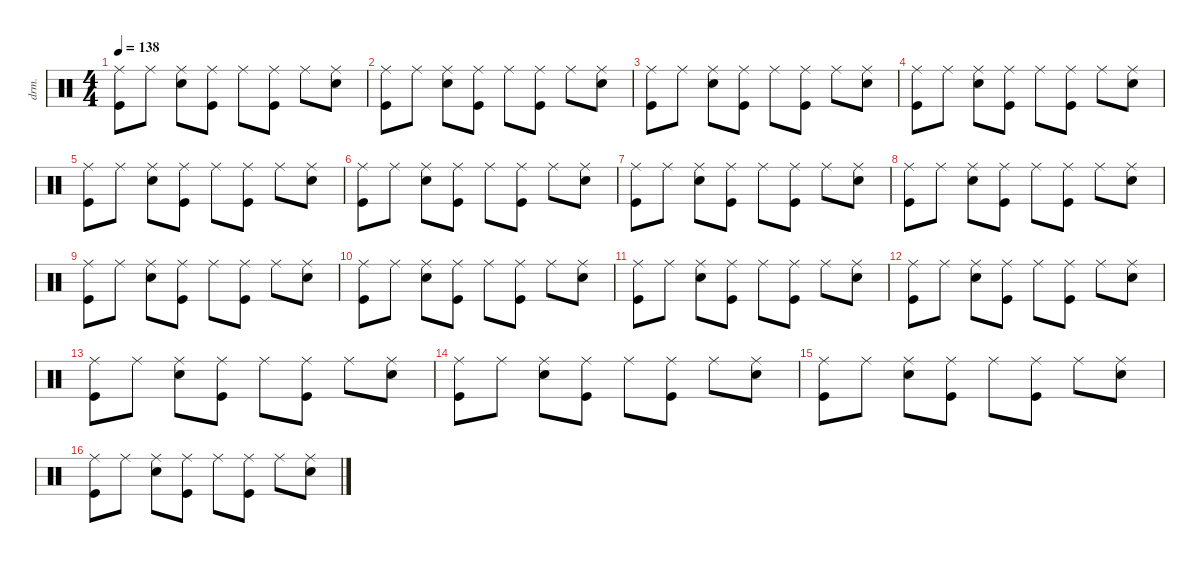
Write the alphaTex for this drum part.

\defaultSystemsLayout 4
\hideDynamics
\bracketExtendMode nobrackets
\otherSystemsTrackNameOrientation horizontal
\track ("Drums" "drm.") {instrument percussion}
\staff {score}
\articulation defaults
\ts (4 4)
\tempo 138
\clef neutral
\ks c
("Ride (middle)" "Kick (hit)").8{dy f beam Down} "Ride (middle)".8{beam Down} ("Ride (middle)" "Snare (hit) 2").8{beam Down} ("Ride (middle)" "Kick (hit)").8{beam Down} "Ride (middle)".8{beam Down} ("Ride (middle)" "Kick (hit)").8{beam Down} "Ride (middle)".8{beam Down} ("Ride (middle)" "Snare (hit) 2").8{beam Down} |
("Ride (middle)" "Kick (hit)").8{beam Down} "Ride (middle)".8{beam Down} ("Ride (middle)" "Snare (hit) 2").8{beam Down} ("Ride (middle)" "Kick (hit)").8{beam Down} "Ride (middle)".8{beam Down} ("Ride (middle)" "Kick (hit)").8{beam Down} "Ride (middle)".8{beam Down} ("Ride (middle)" "Snare (hit) 2").8{beam Down} |
("Ride (middle)" "Kick (hit)").8{beam Down} "Ride (middle)".8{beam Down} ("Ride (middle)" "Snare (hit) 2").8{beam Down} ("Ride (middle)" "Kick (hit)").8{beam Down} "Ride (middle)".8{beam Down} ("Ride (middle)" "Kick (hit)").8{beam Down} "Ride (middle)".8{beam Down} ("Ride (middle)" "Snare (hit) 2").8{beam Down} |
("Ride (middle)" "Kick (hit)").8{beam Down} "Ride (middle)".8{beam Down} ("Ride (middle)" "Snare (hit) 2").8{beam Down} ("Ride (middle)" "Kick (hit)").8{beam Down} "Ride (middle)".8{beam Down} ("Ride (middle)" "Kick (hit)").8{beam Down} "Ride (middle)".8{beam Down} ("Ride (middle)" "Snare (hit) 2").8{beam Down} |
("Ride (middle)" "Kick (hit)").8{beam Down} "Ride (middle)".8{beam Down} ("Ride (middle)" "Snare (hit) 2").8{beam Down} ("Ride (middle)" "Kick (hit)").8{beam Down} "Ride (middle)".8{beam Down} ("Ride (middle)" "Kick (hit)").8{beam Down} "Ride (middle)".8{beam Down} ("Ride (middle)" "Snare (hit) 2").8{beam Down} |
("Ride (middle)" "Kick (hit)").8{beam Down} "Ride (middle)".8{beam Down} ("Ride (middle)" "Snare (hit) 2").8{beam Down} ("Ride (middle)" "Kick (hit)").8{beam Down} "Ride (middle)".8{beam Down} ("Ride (middle)" "Kick (hit)").8{beam Down} "Ride (middle)".8{beam Down} ("Ride (middle)" "Snare (hit) 2").8{beam Down} |
("Ride (middle)" "Kick (hit)").8{beam Down} "Ride (middle)".8{beam Down} ("Ride (middle)" "Snare (hit) 2").8{beam Down} ("Ride (middle)" "Kick (hit)").8{beam Down} "Ride (middle)".8{beam Down} ("Ride (middle)" "Kick (hit)").8{beam Down} "Ride (middle)".8{beam Down} ("Ride (middle)" "Snare (hit) 2").8{beam Down} |
("Ride (middle)" "Kick (hit)").8{beam Down} "Ride (middle)".8{beam Down} ("Ride (middle)" "Snare (hit) 2").8{beam Down} ("Ride (middle)" "Kick (hit)").8{beam Down} "Ride (middle)".8{beam Down} ("Ride (middle)" "Kick (hit)").8{beam Down} "Ride (middle)".8{beam Down} ("Ride (middle)" "Snare (hit) 2").8{beam Down} |
("Ride (middle)" "Kick (hit)").8{beam Down} "Ride (middle)".8{beam Down} ("Ride (middle)" "Snare (hit) 2").8{beam Down} ("Ride (middle)" "Kick (hit)").8{beam Down} "Ride (middle)".8{beam Down} ("Ride (middle)" "Kick (hit)").8{beam Down} "Ride (middle)".8{beam Down} ("Ride (middle)" "Snare (hit) 2").8{beam Down} |
("Ride (middle)" "Kick (hit)").8{beam Down} "Ride (middle)".8{beam Down} ("Ride (middle)" "Snare (hit) 2").8{beam Down} ("Ride (middle)" "Kick (hit)").8{beam Down} "Ride (middle)".8{beam Down} ("Ride (middle)" "Kick (hit)").8{beam Down} "Ride (middle)".8{beam Down} ("Ride (middle)" "Snare (hit) 2").8{beam Down} |
("Ride (middle)" "Kick (hit)").8{beam Down} "Ride (middle)".8{beam Down} ("Ride (middle)" "Snare (hit) 2").8{beam Down} ("Ride (middle)" "Kick (hit)").8{beam Down} "Ride (middle)".8{beam Down} ("Ride (middle)" "Kick (hit)").8{beam Down} "Ride (middle)".8{beam Down} ("Ride (middle)" "Snare (hit) 2").8{beam Down} |
("Ride (middle)" "Kick (hit)").8{beam Down} "Ride (middle)".8{beam Down} ("Ride (middle)" "Snare (hit) 2").8{beam Down} ("Ride (middle)" "Kick (hit)").8{beam Down} "Ride (middle)".8{beam Down} ("Ride (middle)" "Kick (hit)").8{beam Down} "Ride (middle)".8{beam Down} ("Ride (middle)" "Snare (hit) 2").8{beam Down} |
("Ride (middle)" "Kick (hit)").8{beam Down} "Ride (middle)".8{beam Down} ("Ride (middle)" "Snare (hit) 2").8{beam Down} ("Ride (middle)" "Kick (hit)").8{beam Down} "Ride (middle)".8{beam Down} ("Ride (middle)" "Kick (hit)").8{beam Down} "Ride (middle)".8{beam Down} ("Ride (middle)" "Snare (hit) 2").8{beam Down} |
("Ride (middle)" "Kick (hit)").8{beam Down} "Ride (middle)".8{beam Down} ("Ride (middle)" "Snare (hit) 2").8{beam Down} ("Ride (middle)" "Kick (hit)").8{beam Down} "Ride (middle)".8{beam Down} ("Ride (middle)" "Kick (hit)").8{beam Down} "Ride (middle)".8{beam Down} ("Ride (middle)" "Snare (hit) 2").8{beam Down} |
("Ride (middle)" "Kick (hit)").8{beam Down} "Ride (middle)".8{beam Down} ("Ride (middle)" "Snare (hit) 2").8{beam Down} ("Ride (middle)" "Kick (hit)").8{beam Down} "Ride (middle)".8{beam Down} ("Ride (middle)" "Kick (hit)").8{beam Down} "Ride (middle)".8{beam Down} ("Ride (middle)" "Snare (hit) 2").8{beam Down} |
("Ride (middle)" "Kick (hit)").8{beam Down} "Ride (middle)".8{beam Down} ("Ride (middle)" "Snare (hit) 2").8{beam Down} ("Ride (middle)" "Kick (hit)").8{beam Down} "Ride (middle)".8{beam Down} ("Ride (middle)" "Kick (hit)").8{beam Down} "Ride (middle)".8{beam Down} ("Ride (middle)" "Snare (hit) 2").8{beam Down}
